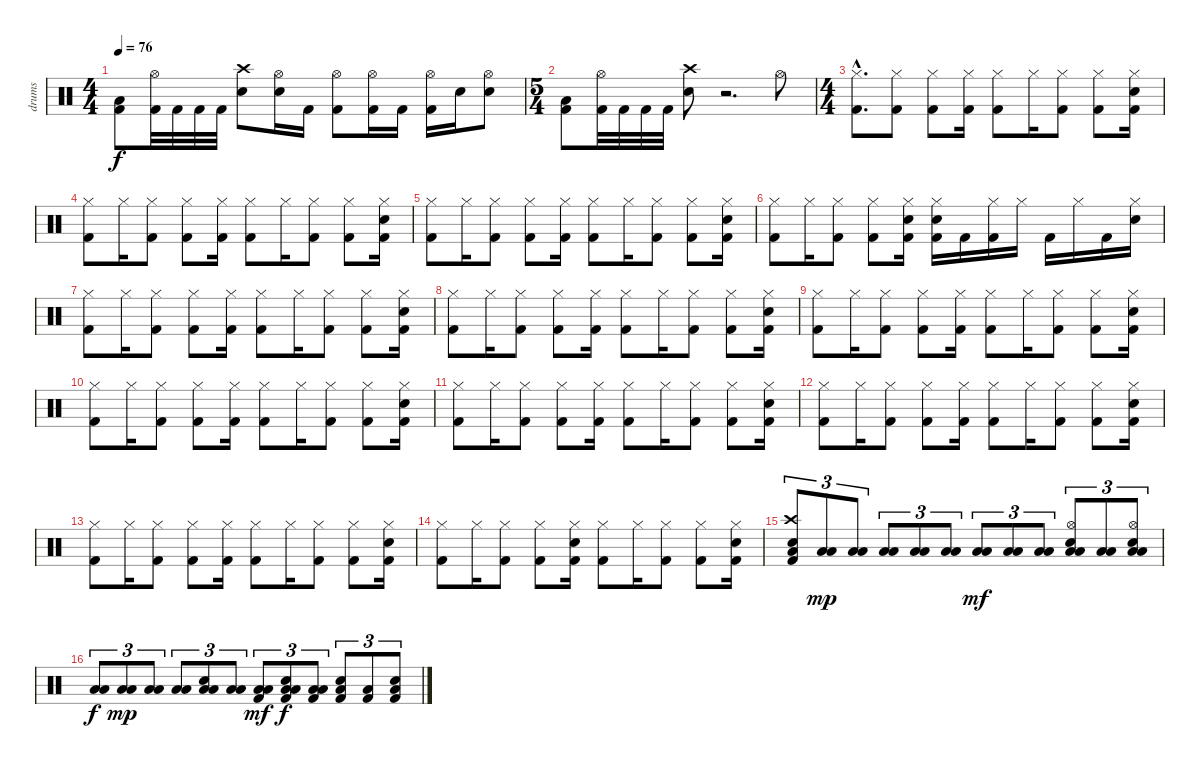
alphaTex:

\track ("drums" "drums") {instrument percussion}
\staff {score}
\articulation defaults
\ts (4 4)
\tempo 76
\clef neutral
\ks c
("Low Floor Tom (hit)" "Kick (hit) 2").8{dy f} ("Hi-Hat (open)" "Kick (hit) 2").32 "Kick (hit) 2".32 "Kick (hit) 2".32 "Kick (hit) 2".32 ("Crash high (hit)" "Electric Snare (hit)").8 ("Hi-Hat (open)" "Electric Snare (hit)").16 "Kick (hit) 2".16 ("Hi-Hat (open)" "Kick (hit) 2").8 ("Hi-Hat (open)" "Kick (hit) 2").16 "Kick (hit) 2".16 ("Hi-Hat (open)" "Kick (hit) 2").16 "Electric Snare (hit)".16 ("Hi-Hat (open)" "Electric Snare (hit)").8 |
\ts (5 4)
("Low Floor Tom (hit)" "Kick (hit) 2").8 ("Hi-Hat (open)" "Kick (hit) 2").32 "Kick (hit) 2".32 "Kick (hit) 2".32 "Kick (hit) 2".32 ("Crash high (hit)" "Electric Snare (hit)").8 r.2{d} "Hi-Hat (open)".8 |
\ts (4 4)
("Hi-Hat (closed)"{hac} "Kick (hit) 2"{hac}).8{d} ("Hi-Hat (closed)" "Kick (hit) 2").8 ("Hi-Hat (closed)" "Kick (hit) 2").8 ("Hi-Hat (closed)" "Kick (hit) 2").16 ("Hi-Hat (closed)" "Kick (hit) 2").8 "Hi-Hat (closed)".16 ("Hi-Hat (closed)" "Kick (hit) 2").8 ("Hi-Hat (closed)" "Kick (hit) 2").8 ("Hi-Hat (closed)" "Snare (hit) 2" "Kick (hit) 2").16 |
("Hi-Hat (closed)" "Kick (hit) 2").8 "Hi-Hat (closed)".16 ("Hi-Hat (closed)" "Kick (hit) 2").8 ("Hi-Hat (closed)" "Kick (hit) 2").8 ("Hi-Hat (closed)" "Kick (hit) 2").16 ("Hi-Hat (closed)" "Kick (hit) 2").8 "Hi-Hat (closed)".16 ("Hi-Hat (closed)" "Kick (hit) 2").8 ("Hi-Hat (closed)" "Kick (hit) 2").8 ("Hi-Hat (closed)" "Snare (hit) 2" "Kick (hit) 2").16 |
("Hi-Hat (closed)" "Kick (hit) 2").8 "Hi-Hat (closed)".16 ("Hi-Hat (closed)" "Kick (hit) 2").8 ("Hi-Hat (closed)" "Kick (hit) 2").8 ("Hi-Hat (closed)" "Kick (hit) 2").16 ("Hi-Hat (closed)" "Kick (hit) 2").8 "Hi-Hat (closed)".16 ("Hi-Hat (closed)" "Kick (hit) 2").8 ("Hi-Hat (closed)" "Kick (hit) 2").8 ("Hi-Hat (closed)" "Snare (hit) 2" "Kick (hit) 2").16 |
("Hi-Hat (closed)" "Kick (hit) 2").8 "Hi-Hat (closed)".16 ("Hi-Hat (closed)" "Kick (hit) 2").8 ("Hi-Hat (closed)" "Kick (hit) 2").8 ("Hi-Hat (closed)" "Snare (hit) 2" "Kick (hit) 2").16 ("Hi-Hat (closed)" "Snare (hit) 2" "Kick (hit) 2").16 "Kick (hit) 2".16 ("Hi-Hat (closed)" "Kick (hit) 2").16 "Hi-Hat (closed)".16 "Kick (hit) 2".16 "Hi-Hat (closed)".16 "Kick (hit) 2".16 ("Hi-Hat (closed)" "Snare (hit) 2").16 |
("Hi-Hat (closed)" "Kick (hit) 2").8 "Hi-Hat (closed)".16 ("Hi-Hat (closed)" "Kick (hit) 2").8 ("Hi-Hat (closed)" "Kick (hit) 2").8 ("Hi-Hat (closed)" "Kick (hit) 2").16 ("Hi-Hat (closed)" "Kick (hit) 2").8 "Hi-Hat (closed)".16 ("Hi-Hat (closed)" "Kick (hit) 2").8 ("Hi-Hat (closed)" "Kick (hit) 2").8 ("Hi-Hat (closed)" "Snare (hit) 2" "Kick (hit) 2").16 |
("Hi-Hat (closed)" "Kick (hit) 2").8 "Hi-Hat (closed)".16 ("Hi-Hat (closed)" "Kick (hit) 2").8 ("Hi-Hat (closed)" "Kick (hit) 2").8 ("Hi-Hat (closed)" "Kick (hit) 2").16 ("Hi-Hat (closed)" "Kick (hit) 2").8 "Hi-Hat (closed)".16 ("Hi-Hat (closed)" "Kick (hit) 2").8 ("Hi-Hat (closed)" "Kick (hit) 2").8 ("Hi-Hat (closed)" "Snare (hit) 2" "Kick (hit) 2").16 |
("Hi-Hat (closed)" "Kick (hit) 2").8 "Hi-Hat (closed)".16 ("Hi-Hat (closed)" "Kick (hit) 2").8 ("Hi-Hat (closed)" "Kick (hit) 2").8 ("Hi-Hat (closed)" "Kick (hit) 2").16 ("Hi-Hat (closed)" "Kick (hit) 2").8 "Hi-Hat (closed)".16 ("Hi-Hat (closed)" "Kick (hit) 2").8 ("Hi-Hat (closed)" "Kick (hit) 2").8 ("Hi-Hat (closed)" "Snare (hit) 2" "Kick (hit) 2").16 |
("Hi-Hat (closed)" "Kick (hit) 2").8 "Hi-Hat (closed)".16 ("Hi-Hat (closed)" "Kick (hit) 2").8 ("Hi-Hat (closed)" "Kick (hit) 2").8 ("Hi-Hat (closed)" "Kick (hit) 2").16 ("Hi-Hat (closed)" "Kick (hit) 2").8 "Hi-Hat (closed)".16 ("Hi-Hat (closed)" "Kick (hit) 2").8 ("Hi-Hat (closed)" "Kick (hit) 2").8 ("Hi-Hat (closed)" "Snare (hit) 2" "Kick (hit) 2").16 |
("Hi-Hat (closed)" "Kick (hit) 2").8 "Hi-Hat (closed)".16 ("Hi-Hat (closed)" "Kick (hit) 2").8 ("Hi-Hat (closed)" "Kick (hit) 2").8 ("Hi-Hat (closed)" "Kick (hit) 2").16 ("Hi-Hat (closed)" "Kick (hit) 2").8 "Hi-Hat (closed)".16 ("Hi-Hat (closed)" "Kick (hit) 2").8 ("Hi-Hat (closed)" "Kick (hit) 2").8 ("Hi-Hat (closed)" "Snare (hit) 2" "Kick (hit) 2").16 |
("Hi-Hat (closed)" "Kick (hit) 2").8 "Hi-Hat (closed)".16 ("Hi-Hat (closed)" "Kick (hit) 2").8 ("Hi-Hat (closed)" "Kick (hit) 2").8 ("Hi-Hat (closed)" "Kick (hit) 2").16 ("Hi-Hat (closed)" "Kick (hit) 2").8 "Hi-Hat (closed)".16 ("Hi-Hat (closed)" "Kick (hit) 2").8 ("Hi-Hat (closed)" "Kick (hit) 2").8 ("Hi-Hat (closed)" "Snare (hit) 2" "Kick (hit) 2").16 |
("Hi-Hat (closed)" "Kick (hit) 2").8 "Hi-Hat (closed)".16 ("Hi-Hat (closed)" "Kick (hit) 2").8 ("Hi-Hat (closed)" "Kick (hit) 2").8 ("Hi-Hat (closed)" "Kick (hit) 2").16 ("Hi-Hat (closed)" "Kick (hit) 2").8 "Hi-Hat (closed)".16 ("Hi-Hat (closed)" "Kick (hit) 2").8 ("Hi-Hat (closed)" "Kick (hit) 2").8 ("Hi-Hat (closed)" "Snare (hit) 2" "Kick (hit) 2").16 |
("Hi-Hat (closed)" "Kick (hit) 2").8 "Hi-Hat (closed)".16 ("Hi-Hat (closed)" "Kick (hit) 2").8 ("Hi-Hat (closed)" "Kick (hit) 2").8 ("Hi-Hat (closed)" "Snare (hit) 2" "Kick (hit) 2").16 ("Hi-Hat (closed)" "Kick (hit) 2").8 "Hi-Hat (closed)".16 ("Hi-Hat (closed)" "Kick (hit) 2").8 ("Hi-Hat (closed)" "Kick (hit) 2").8 ("Hi-Hat (closed)" "Snare (hit) 2" "Kick (hit) 2").16 |
("Crash high (hit)" "Low Tom (hit)" "Snare (hit)" "Kick (hit) 2").8{tu (3 2)} ("Low Tom (hit)" "Low Floor Tom (hit)").8{tu (3 2) dy mp} ("Low Tom (hit)" "Low Floor Tom (hit)").8{tu (3 2)} ("Low Tom (hit)" "Low Floor Tom (hit)").8{tu (3 2)} ("Low Tom (hit)" "Low Floor Tom (hit)").8{tu (3 2)} ("Low Tom (hit)" "Low Floor Tom (hit)").8{tu (3 2)} ("Low Tom (hit)" "Low Floor Tom (hit)").8{tu (3 2) dy mf} ("Low Tom (hit)" "Low Floor Tom (hit)").8{tu (3 2)} ("Low Tom (hit)" "Low Floor Tom (hit)").8{tu (3 2)} ("Hi-Hat (open)" "Electric Snare (hit)" "Low Tom (hit)" "Low Floor Tom (hit)").8{tu (3 2)} ("Low Tom (hit)" "Low Floor Tom (hit)").8{tu (3 2)} ("Hi-Hat (open)" "Electric Snare (hit)" "Low Tom (hit)" "Low Floor Tom (hit)").8{tu (3 2)} |
("Low Tom (hit)" "Low Floor Tom (hit)").8{tu (3 2) dy f} ("Low Tom (hit)" "Low Floor Tom (hit)").8{tu (3 2) dy mp} ("Low Tom (hit)" "Low Floor Tom (hit)").8{tu (3 2)} ("Low Tom (hit)" "Low Floor Tom (hit)").8{tu (3 2)} ("Electric Snare (hit)" "Low Tom (hit)" "Low Floor Tom (hit)").8{tu (3 2)} ("Low Tom (hit)" "Low Floor Tom (hit)").8{tu (3 2)} ("Low Tom (hit)" "Low Floor Tom (hit)" "Kick (hit) 2").8{tu (3 2) dy mf} ("Electric Snare (hit)" "Low Tom (hit)" "Low Floor Tom (hit)" "Kick (hit) 2").8{tu (3 2) dy f} ("Low Tom (hit)" "Low Floor Tom (hit)" "Kick (hit) 2").8{tu (3 2)} ("Electric Snare (hit)" "Low Tom (hit)" "Kick (hit) 2").8{tu (3 2)} ("Low Tom (hit)" "Kick (hit) 2").8{tu (3 2)} ("Electric Snare (hit)" "Low Tom (hit)" "Kick (hit) 2").8{tu (3 2)}
